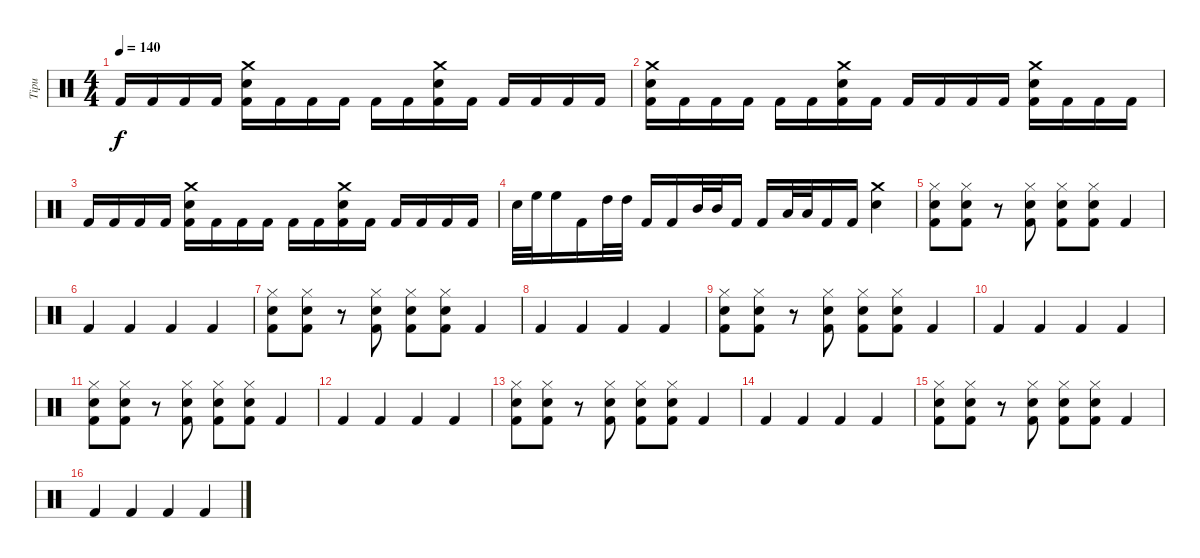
\track ("Tipu" "Tipu") {instrument percussion}
\staff {score}
\articulation defaults
\ts (4 4)
\tempo 140
\clef neutral
\ks c "Kick (hit) 2".16{dy f} "Kick (hit) 2".16 "Kick (hit) 2".16 "Kick (hit) 2".16
("Electric Snare (hit)" "Crash medium (hit)" "Kick (hit) 2").16 "Kick (hit) 2".16 "Kick (hit) 2".16 "Kick (hit) 2".16 "Kick (hit) 2".16 "Kick (hit) 2".16 ("Electric Snare (hit)" "Crash medium (hit)" "Kick (hit) 2").16 "Kick (hit) 2".16 "Kick (hit) 2".16 "Kick (hit) 2".16 "Kick (hit) 2".16 "Kick (hit) 2".16 |
("Electric Snare (hit)" "Crash medium (hit)" "Kick (hit) 2").16 "Kick (hit) 2".16 "Kick (hit) 2".16 "Kick (hit) 2".16 "Kick (hit) 2".16 "Kick (hit) 2".16 ("Electric Snare (hit)" "Crash medium (hit)" "Kick (hit) 2").16 "Kick (hit) 2".16 "Kick (hit) 2".16 "Kick (hit) 2".16 "Kick (hit) 2".16 "Kick (hit) 2".16 ("Electric Snare (hit)" "Crash medium (hit)" "Kick (hit) 2").16 "Kick (hit) 2".16 "Kick (hit) 2".16 "Kick (hit) 2".16 |
"Kick (hit) 2".16 "Kick (hit) 2".16 "Kick (hit) 2".16 "Kick (hit) 2".16 ("Electric Snare (hit)" "Crash medium (hit)" "Kick (hit) 2").16 "Kick (hit) 2".16 "Kick (hit) 2".16 "Kick (hit) 2".16 "Kick (hit) 2".16 "Kick (hit) 2".16 ("Electric Snare (hit)" "Crash medium (hit)" "Kick (hit) 2").16 "Kick (hit) 2".16 "Kick (hit) 2".16 "Kick (hit) 2".16 "Kick (hit) 2".16 "Kick (hit) 2".16 |
"Snare (hit) 2".32 "High Floor Tom (hit)".32 "High Floor Tom (hit)".16 "Kick (hit) 2".16 "High Tom (hit)".32 "High Tom (hit)".32 "Kick (hit) 2".16 "Kick (hit) 2".16 "Mid Tom (hit)".32 "Mid Tom (hit)".32 "Kick (hit) 2".16 "Kick (hit) 2".16 "Low Tom (hit)".32 "Low Tom (hit)".32 "Kick (hit) 2".16 "Kick (hit) 2".16 ("Electric Snare (hit)" "Crash medium (hit)").4 |
("Hi-Hat (closed)" "Kick (hit) 2" "Electric Snare (hit)").8 ("Hi-Hat (closed)" "Kick (hit) 2" "Electric Snare (hit)").8 r.8 ("Hi-Hat (closed)" "Kick (hit) 2" "Electric Snare (hit)").8 ("Hi-Hat (closed)" "Kick (hit) 2" "Electric Snare (hit)").8 ("Hi-Hat (closed)" "Kick (hit) 2" "Electric Snare (hit)").8 "Kick (hit) 2".4 |
"Kick (hit) 2".4 "Kick (hit) 2".4 "Kick (hit) 2".4 "Kick (hit) 2".4 |
("Hi-Hat (closed)" "Kick (hit) 2" "Electric Snare (hit)").8 ("Hi-Hat (closed)" "Kick (hit) 2" "Electric Snare (hit)").8 r.8 ("Hi-Hat (closed)" "Kick (hit) 2" "Electric Snare (hit)").8 ("Hi-Hat (closed)" "Kick (hit) 2" "Electric Snare (hit)").8 ("Hi-Hat (closed)" "Kick (hit) 2" "Electric Snare (hit)").8 "Kick (hit) 2".4 |
"Kick (hit) 2".4 "Kick (hit) 2".4 "Kick (hit) 2".4 "Kick (hit) 2".4 |
("Hi-Hat (closed)" "Kick (hit) 2" "Electric Snare (hit)").8 ("Hi-Hat (closed)" "Kick (hit) 2" "Electric Snare (hit)").8 r.8 ("Hi-Hat (closed)" "Kick (hit) 2" "Electric Snare (hit)").8 ("Hi-Hat (closed)" "Kick (hit) 2" "Electric Snare (hit)").8 ("Hi-Hat (closed)" "Kick (hit) 2" "Electric Snare (hit)").8 "Kick (hit) 2".4 |
"Kick (hit) 2".4 "Kick (hit) 2".4 "Kick (hit) 2".4 "Kick (hit) 2".4 |
("Hi-Hat (closed)" "Kick (hit) 2" "Electric Snare (hit)").8 ("Hi-Hat (closed)" "Kick (hit) 2" "Electric Snare (hit)").8 r.8 ("Hi-Hat (closed)" "Kick (hit) 2" "Electric Snare (hit)").8 ("Hi-Hat (closed)" "Kick (hit) 2" "Electric Snare (hit)").8 ("Hi-Hat (closed)" "Kick (hit) 2" "Electric Snare (hit)").8 "Kick (hit) 2".4 |
"Kick (hit) 2".4 "Kick (hit) 2".4 "Kick (hit) 2".4 "Kick (hit) 2".4 |
("Hi-Hat (closed)" "Kick (hit) 2" "Electric Snare (hit)").8 ("Hi-Hat (closed)" "Kick (hit) 2" "Electric Snare (hit)").8 r.8 ("Hi-Hat (closed)" "Kick (hit) 2" "Electric Snare (hit)").8 ("Hi-Hat (closed)" "Kick (hit) 2" "Electric Snare (hit)").8 ("Hi-Hat (closed)" "Kick (hit) 2" "Electric Snare (hit)").8 "Kick (hit) 2".4 |
"Kick (hit) 2".4 "Kick (hit) 2".4 "Kick (hit) 2".4 "Kick (hit) 2".4 |
("Hi-Hat (closed)" "Kick (hit) 2" "Electric Snare (hit)").8 ("Hi-Hat (closed)" "Kick (hit) 2" "Electric Snare (hit)").8 r.8 ("Hi-Hat (closed)" "Kick (hit) 2" "Electric Snare (hit)").8 ("Hi-Hat (closed)" "Kick (hit) 2" "Electric Snare (hit)").8 ("Hi-Hat (closed)" "Kick (hit) 2" "Electric Snare (hit)").8 "Kick (hit) 2".4 |
"Kick (hit) 2".4 "Kick (hit) 2".4 "Kick (hit) 2".4 "Kick (hit) 2".4
